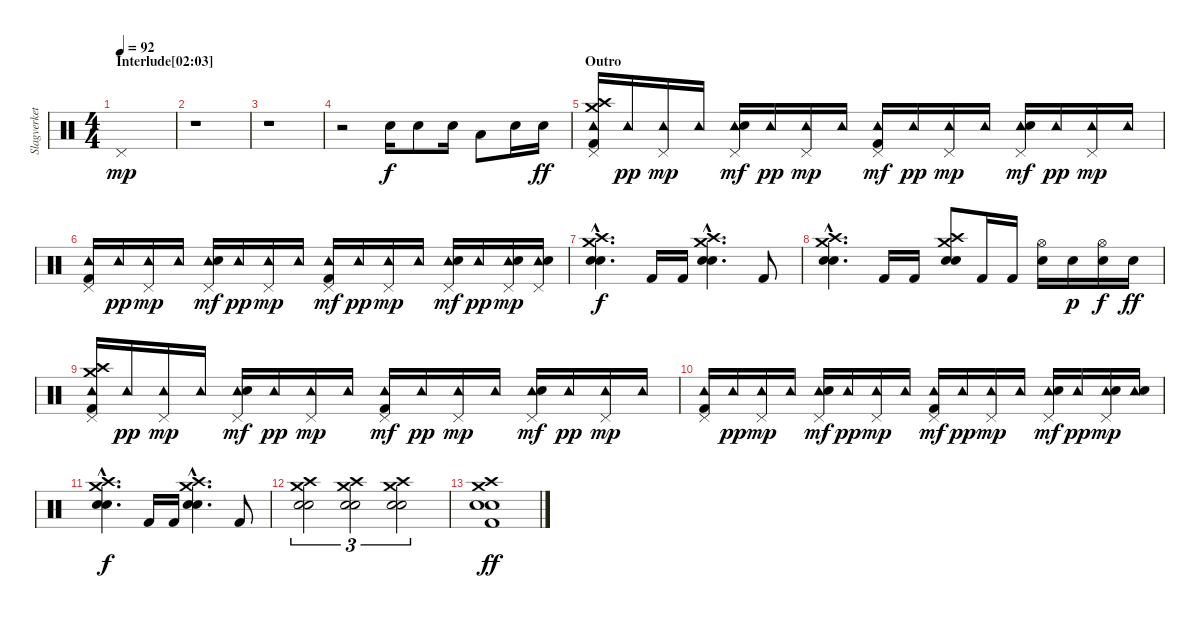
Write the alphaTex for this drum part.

\track ("Slagverket!" "Slagverket") {instrument percussion}
\staff {score}
\articulation defaults
\ts (4 4)
\section ("" "Interlude[02:03]")
\tempo 92
\clef neutral
\ks c "Pedal Hi-Hat (hit)".1{dy mp}
|
r.1 |
r.1 |
r.2 "Electric Snare (hit)".16{dy f} "Electric Snare (hit)".8 "Electric Snare (hit)".16 "Low Floor Tom (hit)".8 "Electric Snare (hit)".16 "Electric Snare (hit)".16{dy ff} |
\section ("" "Outro")
("Pedal Hi-Hat (hit)" "Tambourine (hit)" "Crash medium (hit)" "Crash high (hit)" "Kick (hit) 2").16 "Tambourine (hit)".16{dy pp} ("Pedal Hi-Hat (hit)" "Tambourine (hit)").16{dy mp} "Tambourine (hit)".16 ("Pedal Hi-Hat (hit)" "Tambourine (hit)" "Electric Snare (hit)").16{dy mf} "Tambourine (hit)".16{dy pp} ("Pedal Hi-Hat (hit)" "Tambourine (hit)").16{dy mp} "Tambourine (hit)".16 ("Pedal Hi-Hat (hit)" "Tambourine (hit)" "Kick (hit) 2").16{dy mf} "Tambourine (hit)".16{dy pp} ("Pedal Hi-Hat (hit)" "Tambourine (hit)").16{dy mp} "Tambourine (hit)".16 ("Pedal Hi-Hat (hit)" "Tambourine (hit)" "Electric Snare (hit)").16{dy mf} "Tambourine (hit)".16{dy pp} ("Pedal Hi-Hat (hit)" "Tambourine (hit)").16{dy mp} "Tambourine (hit)".16 |
("Pedal Hi-Hat (hit)" "Tambourine (hit)" "Kick (hit) 2").16 "Tambourine (hit)".16{dy pp} ("Pedal Hi-Hat (hit)" "Tambourine (hit)").16{dy mp} "Tambourine (hit)".16 ("Pedal Hi-Hat (hit)" "Tambourine (hit)" "Electric Snare (hit)").16{dy mf} "Tambourine (hit)".16{dy pp} ("Pedal Hi-Hat (hit)" "Tambourine (hit)").16{dy mp} "Tambourine (hit)".16 ("Pedal Hi-Hat (hit)" "Tambourine (hit)" "Kick (hit) 2").16{dy mf} "Tambourine (hit)".16{dy pp} ("Pedal Hi-Hat (hit)" "Tambourine (hit)").16{dy mp} "Tambourine (hit)".16 ("Pedal Hi-Hat (hit)" "Tambourine (hit)" "Electric Snare (hit)").16{dy mf} "Tambourine (hit)".16{dy pp} ("Pedal Hi-Hat (hit)" "Tambourine (hit)" "Electric Snare (hit)").16{dy mp} ("Pedal Hi-Hat (hit)" "Tambourine (hit)" "Electric Snare (hit)").16 |
("Crash medium (hit)"{hac} "Crash high (hit)"{hac} "Snare (hit) 2"{hac} "Electric Snare (hit)"{hac}).4{d dy f} "Kick (hit) 2".16 "Kick (hit) 2".16 ("Crash medium (hit)"{hac} "Crash high (hit)"{hac} "Snare (hit) 2"{hac} "Electric Snare (hit)"{hac}).4{d} "Kick (hit) 2".8 |
("Crash medium (hit)"{hac} "Crash high (hit)"{hac} "Snare (hit) 2"{hac} "Electric Snare (hit)"{hac}).4{d} "Kick (hit) 2".16 "Kick (hit) 2".16 ("Crash medium (hit)" "Crash high (hit)" "Snare (hit) 2" "Electric Snare (hit)").8 "Kick (hit) 2".16 "Kick (hit) 2".16 ("Hi-Hat (open)" "Electric Snare (hit)").16 "Snare (hit) 2".16{dy p} ("Hi-Hat (open)" "Electric Snare (hit)").16{dy f} "Electric Snare (hit)".16{dy ff} |
("Pedal Hi-Hat (hit)" "Tambourine (hit)" "Crash medium (hit)" "Crash high (hit)" "Kick (hit) 2").16 "Tambourine (hit)".16{dy pp} ("Pedal Hi-Hat (hit)" "Tambourine (hit)").16{dy mp} "Tambourine (hit)".16 ("Pedal Hi-Hat (hit)" "Tambourine (hit)" "Electric Snare (hit)").16{dy mf} "Tambourine (hit)".16{dy pp} ("Pedal Hi-Hat (hit)" "Tambourine (hit)").16{dy mp} "Tambourine (hit)".16 ("Pedal Hi-Hat (hit)" "Tambourine (hit)" "Kick (hit) 2").16{dy mf} "Tambourine (hit)".16{dy pp} ("Pedal Hi-Hat (hit)" "Tambourine (hit)").16{dy mp} "Tambourine (hit)".16 ("Pedal Hi-Hat (hit)" "Tambourine (hit)" "Electric Snare (hit)").16{dy mf} "Tambourine (hit)".16{dy pp} ("Pedal Hi-Hat (hit)" "Tambourine (hit)").16{dy mp} "Tambourine (hit)".16 |
("Pedal Hi-Hat (hit)" "Tambourine (hit)" "Kick (hit) 2").16 "Tambourine (hit)".16{dy pp} ("Pedal Hi-Hat (hit)" "Tambourine (hit)").16{dy mp} "Tambourine (hit)".16 ("Pedal Hi-Hat (hit)" "Tambourine (hit)" "Electric Snare (hit)").16{dy mf} "Tambourine (hit)".16{dy pp} ("Pedal Hi-Hat (hit)" "Tambourine (hit)").16{dy mp} "Tambourine (hit)".16 ("Pedal Hi-Hat (hit)" "Tambourine (hit)" "Kick (hit) 2").16{dy mf} "Tambourine (hit)".16{dy pp} ("Pedal Hi-Hat (hit)" "Tambourine (hit)").16{dy mp} "Tambourine (hit)".16 ("Pedal Hi-Hat (hit)" "Tambourine (hit)" "Electric Snare (hit)").16{dy mf} "Tambourine (hit)".16{dy pp} ("Pedal Hi-Hat (hit)" "Tambourine (hit)" "Electric Snare (hit)").16{dy mp} ("Tambourine (hit)" "Electric Snare (hit)").16 |
("Crash medium (hit)"{hac} "Crash high (hit)"{hac} "Snare (hit) 2"{hac} "Electric Snare (hit)"{hac}).4{d dy f} "Kick (hit) 2".16 "Kick (hit) 2".16 ("Crash medium (hit)"{hac} "Crash high (hit)"{hac} "Snare (hit) 2"{hac} "Electric Snare (hit)"{hac}).4{d} "Kick (hit) 2".8 |
("Crash medium (hit)" "Crash high (hit)" "Snare (hit) 2" "Electric Snare (hit)").2{tu (3 2)} ("Crash medium (hit)" "Crash high (hit)" "Snare (hit) 2" "Electric Snare (hit)").2{tu (3 2)} ("Crash medium (hit)" "Crash high (hit)" "Snare (hit) 2" "Electric Snare (hit)").2{tu (3 2)} |
("Crash medium (hit)" "Crash high (hit)" "Snare (hit) 2" "Electric Snare (hit)" "Kick (hit) 2").1{dy ff}
